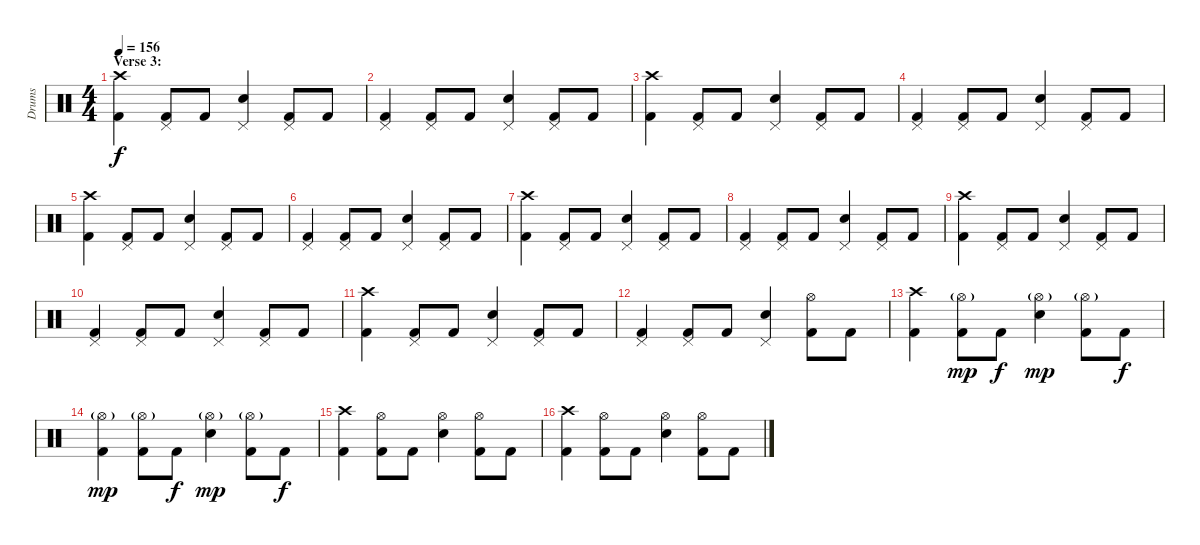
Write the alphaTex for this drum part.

\track ("Drums" "Drums") {instrument percussion}
\staff {score}
\articulation defaults
\ts (4 4)
\section ("" "Verse 3:")
\tempo 156
\clef neutral
\ks c
("Crash high (hit)" "Kick (hit) 2").4{dy f} ("Pedal Hi-Hat (hit)" "Kick (hit) 2").8 "Kick (hit) 2".8 ("Pedal Hi-Hat (hit)" "Electric Snare (hit)").4 ("Pedal Hi-Hat (hit)" "Kick (hit) 2").8 "Kick (hit) 2".8 |
("Pedal Hi-Hat (hit)" "Kick (hit) 2").4 ("Pedal Hi-Hat (hit)" "Kick (hit) 2").8 "Kick (hit) 2".8 ("Pedal Hi-Hat (hit)" "Electric Snare (hit)").4 ("Pedal Hi-Hat (hit)" "Kick (hit) 2").8 "Kick (hit) 2".8 |
("Crash high (hit)" "Kick (hit) 2").4 ("Pedal Hi-Hat (hit)" "Kick (hit) 2").8 "Kick (hit) 2".8 ("Pedal Hi-Hat (hit)" "Electric Snare (hit)").4 ("Pedal Hi-Hat (hit)" "Kick (hit) 2").8 "Kick (hit) 2".8 |
("Pedal Hi-Hat (hit)" "Kick (hit) 2").4 ("Pedal Hi-Hat (hit)" "Kick (hit) 2").8 "Kick (hit) 2".8 ("Pedal Hi-Hat (hit)" "Electric Snare (hit)").4 ("Pedal Hi-Hat (hit)" "Kick (hit) 2").8 "Kick (hit) 2".8 |
("Crash high (hit)" "Kick (hit) 2").4 ("Pedal Hi-Hat (hit)" "Kick (hit) 2").8 "Kick (hit) 2".8 ("Pedal Hi-Hat (hit)" "Electric Snare (hit)").4 ("Pedal Hi-Hat (hit)" "Kick (hit) 2").8 "Kick (hit) 2".8 |
("Pedal Hi-Hat (hit)" "Kick (hit) 2").4 ("Pedal Hi-Hat (hit)" "Kick (hit) 2").8 "Kick (hit) 2".8 ("Pedal Hi-Hat (hit)" "Electric Snare (hit)").4 ("Pedal Hi-Hat (hit)" "Kick (hit) 2").8 "Kick (hit) 2".8 |
("Crash high (hit)" "Kick (hit) 2").4 ("Pedal Hi-Hat (hit)" "Kick (hit) 2").8 "Kick (hit) 2".8 ("Pedal Hi-Hat (hit)" "Electric Snare (hit)").4 ("Pedal Hi-Hat (hit)" "Kick (hit) 2").8 "Kick (hit) 2".8 |
("Pedal Hi-Hat (hit)" "Kick (hit) 2").4 ("Pedal Hi-Hat (hit)" "Kick (hit) 2").8 "Kick (hit) 2".8 ("Pedal Hi-Hat (hit)" "Electric Snare (hit)").4 ("Pedal Hi-Hat (hit)" "Kick (hit) 2").8 "Kick (hit) 2".8 |
("Crash high (hit)" "Kick (hit) 2").4 ("Pedal Hi-Hat (hit)" "Kick (hit) 2").8 "Kick (hit) 2".8 ("Pedal Hi-Hat (hit)" "Electric Snare (hit)").4 ("Pedal Hi-Hat (hit)" "Kick (hit) 2").8 "Kick (hit) 2".8 |
("Pedal Hi-Hat (hit)" "Kick (hit) 2").4 ("Pedal Hi-Hat (hit)" "Kick (hit) 2").8 "Kick (hit) 2".8 ("Pedal Hi-Hat (hit)" "Electric Snare (hit)").4 ("Pedal Hi-Hat (hit)" "Kick (hit) 2").8 "Kick (hit) 2".8 |
("Crash high (hit)" "Kick (hit) 2").4 ("Pedal Hi-Hat (hit)" "Kick (hit) 2").8 "Kick (hit) 2".8 ("Pedal Hi-Hat (hit)" "Electric Snare (hit)").4 ("Pedal Hi-Hat (hit)" "Kick (hit) 2").8 "Kick (hit) 2".8 |
("Pedal Hi-Hat (hit)" "Kick (hit) 2").4 ("Pedal Hi-Hat (hit)" "Kick (hit) 2").8 "Kick (hit) 2".8 ("Pedal Hi-Hat (hit)" "Electric Snare (hit)").4 ("Hi-Hat (open)" "Kick (hit) 2").8 "Kick (hit) 2".8 |
("Crash high (hit)" "Kick (hit) 2").4 ("Hi-Hat (open)"{g} "Kick (hit) 2").8{dy mp} "Kick (hit) 2".8{dy f} ("Hi-Hat (open)"{g} "Electric Snare (hit)").4{dy mp} ("Hi-Hat (open)"{g} "Kick (hit) 2").8 "Kick (hit) 2".8{dy f} |
("Hi-Hat (open)"{g} "Kick (hit) 2").4{dy mp} ("Hi-Hat (open)"{g} "Kick (hit) 2").8 "Kick (hit) 2".8{dy f} ("Hi-Hat (open)"{g} "Electric Snare (hit)").4{dy mp} ("Hi-Hat (open)"{g} "Kick (hit) 2").8 "Kick (hit) 2".8{dy f} |
("Crash high (hit)" "Kick (hit) 2").4 ("Hi-Hat (open)" "Kick (hit) 2").8 "Kick (hit) 2".8 ("Hi-Hat (open)" "Electric Snare (hit)").4 ("Hi-Hat (open)" "Kick (hit) 2").8 "Kick (hit) 2".8 |
("Crash high (hit)" "Kick (hit) 2").4 ("Hi-Hat (open)" "Kick (hit) 2").8 "Kick (hit) 2".8 ("Hi-Hat (open)" "Electric Snare (hit)").4 ("Hi-Hat (open)" "Kick (hit) 2").8 "Kick (hit) 2".8
